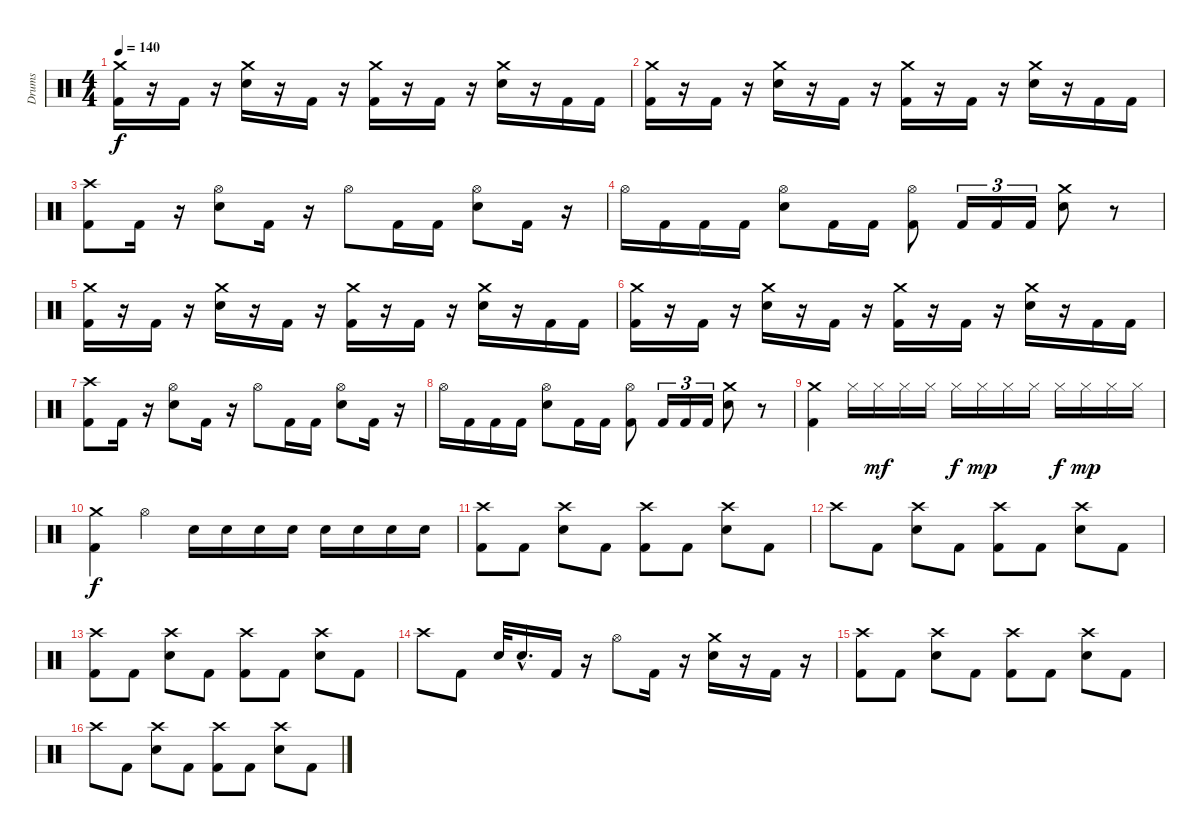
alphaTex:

\track ("Drums" "Drums") {instrument percussion}
\staff {score}
\articulation defaults
\ts (4 4)
\tempo 140
\clef neutral
\ks c
("Crash medium (hit)" "Kick (hit) 2").16{dy f} r.16 "Kick (hit) 2".16 r.16 ("Crash medium (hit)" "Electric Snare (hit)").16 r.16 "Kick (hit) 2".16 r.16 ("Kick (hit) 2" "Crash medium (hit)").16 r.16 "Kick (hit) 2".16 r.16 ("Crash medium (hit)" "Electric Snare (hit)").16 r.16 "Kick (hit) 2".16 "Kick (hit) 2".16 |
("Crash medium (hit)" "Kick (hit) 2").16 r.16 "Kick (hit) 2".16 r.16 ("Crash medium (hit)" "Electric Snare (hit)").16 r.16 "Kick (hit) 2".16 r.16 ("Kick (hit) 2" "Crash medium (hit)").16 r.16 "Kick (hit) 2".16 r.16 ("Crash medium (hit)" "Electric Snare (hit)").16 r.16 "Kick (hit) 2".16 "Kick (hit) 2".16 |
("Kick (hit) 2" "Crash high (hit)").8 "Kick (hit) 2".16 r.16 ("Electric Snare (hit)" "Hi-Hat (open)").8 "Kick (hit) 2".16 r.16 "Hi-Hat (open)".8 "Kick (hit) 2".16 "Kick (hit) 2".16 ("Electric Snare (hit)" "Hi-Hat (open)").8 "Kick (hit) 2".16 r.16 |
"Hi-Hat (open)".16 "Kick (hit) 2".16 "Kick (hit) 2".16 "Kick (hit) 2".16 ("Electric Snare (hit)" "Hi-Hat (open)").8 "Kick (hit) 2".16 "Kick (hit) 2".16 ("Kick (hit) 2" "Hi-Hat (open)").8 "Kick (hit) 2".16{tu (3 2)} "Kick (hit) 2".16{tu (3 2)} "Kick (hit) 2".16{tu (3 2)} ("Electric Snare (hit)" "Crash medium (hit)").8 r.8 |
("Crash medium (hit)" "Kick (hit) 2").16 r.16 "Kick (hit) 2".16 r.16 ("Crash medium (hit)" "Electric Snare (hit)").16 r.16 "Kick (hit) 2".16 r.16 ("Kick (hit) 2" "Crash medium (hit)").16 r.16 "Kick (hit) 2".16 r.16 ("Crash medium (hit)" "Electric Snare (hit)").16 r.16 "Kick (hit) 2".16 "Kick (hit) 2".16 |
("Crash medium (hit)" "Kick (hit) 2").16 r.16 "Kick (hit) 2".16 r.16 ("Crash medium (hit)" "Electric Snare (hit)").16 r.16 "Kick (hit) 2".16 r.16 ("Kick (hit) 2" "Crash medium (hit)").16 r.16 "Kick (hit) 2".16 r.16 ("Crash medium (hit)" "Electric Snare (hit)").16 r.16 "Kick (hit) 2".16 "Kick (hit) 2".16 |
("Kick (hit) 2" "Crash high (hit)").8 "Kick (hit) 2".16 r.16 ("Electric Snare (hit)" "Hi-Hat (open)").8 "Kick (hit) 2".16 r.16 "Hi-Hat (open)".8 "Kick (hit) 2".16 "Kick (hit) 2".16 ("Electric Snare (hit)" "Hi-Hat (open)").8 "Kick (hit) 2".16 r.16 |
"Hi-Hat (open)".16 "Kick (hit) 2".16 "Kick (hit) 2".16 "Kick (hit) 2".16 ("Electric Snare (hit)" "Hi-Hat (open)").8 "Kick (hit) 2".16 "Kick (hit) 2".16 ("Kick (hit) 2" "Hi-Hat (open)").8 "Kick (hit) 2".16{tu (3 2)} "Kick (hit) 2".16{tu (3 2)} "Kick (hit) 2".16{tu (3 2)} ("Electric Snare (hit)" "Crash medium (hit)").8 r.8 |
("Crash medium (hit)" "Kick (hit) 2").4 "Hi-Hat (closed)".16 "Hi-Hat (closed)".16{dy mf} "Hi-Hat (closed)".16 "Hi-Hat (closed)".16 "Hi-Hat (closed)".16{dy f} "Hi-Hat (closed)".16{dy mp} "Hi-Hat (closed)".16 "Hi-Hat (closed)".16 "Hi-Hat (closed)".16{dy f} "Hi-Hat (closed)".16{dy mp} "Hi-Hat (closed)".16 "Hi-Hat (closed)".16 |
("Kick (hit) 2" "Crash medium (hit)").4{dy f} "Hi-Hat (open)".4 "Electric Snare (hit)".16 "Electric Snare (hit)".16 "Electric Snare (hit)".16 "Electric Snare (hit)".16 "Electric Snare (hit)".16 "Electric Snare (hit)".16 "Electric Snare (hit)".16 "Electric Snare (hit)".16 |
("Kick (hit) 2" "Crash high (hit)").8 "Kick (hit) 2".8 ("Electric Snare (hit)" "Crash high (hit)").8 "Kick (hit) 2".8 ("Kick (hit) 2" "Crash high (hit)").8 "Kick (hit) 2".8 ("Electric Snare (hit)" "Crash high (hit)").8 "Kick (hit) 2".8 |
"Crash high (hit)".8 "Kick (hit) 2".8 ("Electric Snare (hit)" "Crash high (hit)").8 "Kick (hit) 2".8 ("Kick (hit) 2" "Crash high (hit)").8 "Kick (hit) 2".8 ("Electric Snare (hit)" "Crash high (hit)").8 "Kick (hit) 2".8 |
("Kick (hit) 2" "Crash high (hit)").8 "Kick (hit) 2".8 ("Electric Snare (hit)" "Crash high (hit)").8 "Kick (hit) 2".8 ("Kick (hit) 2" "Crash high (hit)").8 "Kick (hit) 2".8 ("Electric Snare (hit)" "Crash high (hit)").8 "Kick (hit) 2".8 |
"Crash high (hit)".8 "Kick (hit) 2".8 "Electric Snare (hit)".32 "Electric Snare (hit)"{hac}.16{d} "Kick (hit) 2".16 r.16 "Hi-Hat (open)".8 "Kick (hit) 2".16 r.16 ("Crash medium (hit)" "Electric Snare (hit)").16 r.16 "Kick (hit) 2".16 r.16 |
("Kick (hit) 2" "Crash high (hit)").8 "Kick (hit) 2".8 ("Electric Snare (hit)" "Crash high (hit)").8 "Kick (hit) 2".8 ("Kick (hit) 2" "Crash high (hit)").8 "Kick (hit) 2".8 ("Electric Snare (hit)" "Crash high (hit)").8 "Kick (hit) 2".8 |
"Crash high (hit)".8 "Kick (hit) 2".8 ("Electric Snare (hit)" "Crash high (hit)").8 "Kick (hit) 2".8 ("Kick (hit) 2" "Crash high (hit)").8 "Kick (hit) 2".8 ("Electric Snare (hit)" "Crash high (hit)").8 "Kick (hit) 2".8
